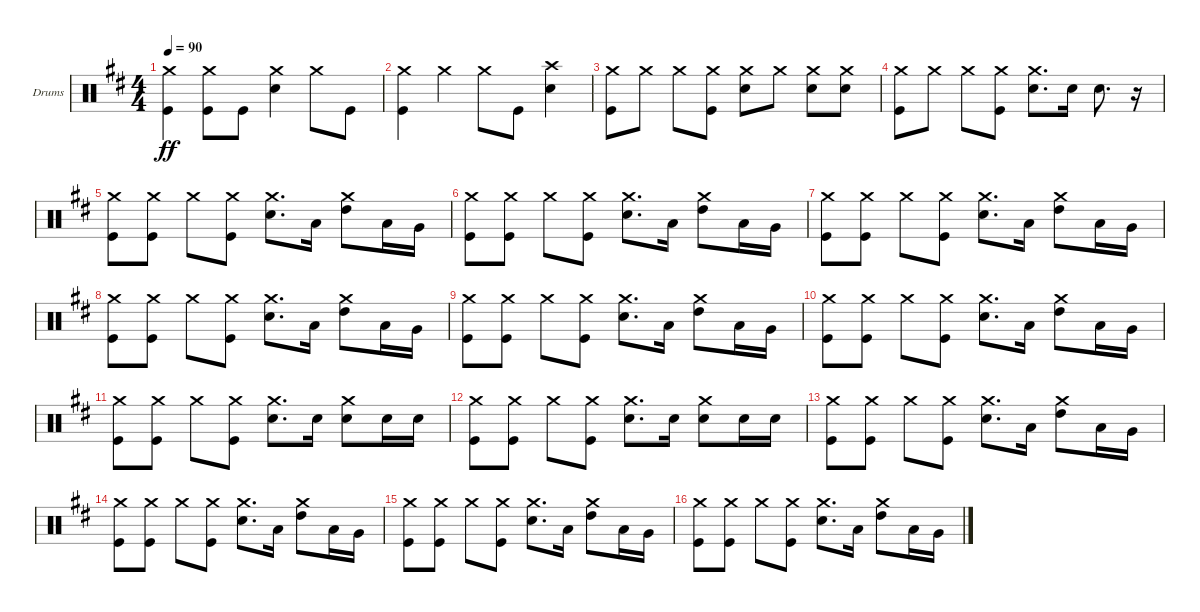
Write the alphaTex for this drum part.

\defaultSystemsLayout 4
\bracketExtendMode groupsimilarinstruments
\firstSystemTrackNameOrientation horizontal
\otherSystemsTrackNameOrientation horizontal
\track ("Drumkit" "Drums") {instrument percussion}
\staff {score}
\articulation defaults
\ts (4 4)
\tempo 90
\clef neutral
\scale
0.333333
\ks d
("Kick (hit)" "Crash medium (hit)").4{dy ff} ("Crash medium (hit)" "Kick (hit)").8 "Kick (hit)".8 ("Snare (hit) 2" "Crash medium (hit)").4 "Crash medium (hit)".8 "Kick (hit)".8 |
\scale
0.333333 ("Kick (hit)" "Crash medium (hit)").4 "Crash medium (hit)".4 "Crash medium (hit)".8 "Kick (hit)".8 ("Crash high (hit)" "Snare (hit) 2").4 |
\scale
0.333333 ("Kick (hit)" "Crash medium (hit)").8 "Crash medium (hit)".8 "Crash medium (hit)".8 ("Crash medium (hit)" "Kick (hit)").8 ("Crash medium (hit)" "Snare (hit) 2").8 "Crash medium (hit)".8 ("Crash medium (hit)" "Snare (hit) 2").8 ("Crash medium (hit)" "Snare (hit) 2").8 |
\scale
0.333333 ("Kick (hit)" "Crash medium (hit)").8 "Crash medium (hit)".8 "Crash medium (hit)".8 ("Kick (hit)" "Crash medium (hit)").8 ("Snare (hit) 2" "Crash medium (hit)").8{d} "Snare (hit) 2".16 "Snare (hit) 2".8{d} r.16 |
\scale
0.333333 ("Kick (hit)" "Crash medium (hit)").8 ("Crash medium (hit)" "Kick (hit)").8 "Crash medium (hit)".8 ("Crash medium (hit)" "Kick (hit)").8 ("Crash medium (hit)" "Snare (hit) 2").8{d} "Low Tom (hit)".16 ("High Tom (hit)" "Crash medium (hit)").8 "Low Tom (hit)".16 "Very Low Tom (hit)".16 |
\scale
0.333333 ("Kick (hit)" "Crash medium (hit)").8 ("Crash medium (hit)" "Kick (hit)").8 "Crash medium (hit)".8 ("Crash medium (hit)" "Kick (hit)").8 ("Crash medium (hit)" "Snare (hit) 2").8{d} "Low Tom (hit)".16 ("High Tom (hit)" "Crash medium (hit)").8 "Low Tom (hit)".16 "Very Low Tom (hit)".16 |
\scale
0.333333 ("Kick (hit)" "Crash medium (hit)").8 ("Crash medium (hit)" "Kick (hit)").8 "Crash medium (hit)".8 ("Crash medium (hit)" "Kick (hit)").8 ("Crash medium (hit)" "Snare (hit) 2").8{d} "Low Tom (hit)".16 ("High Tom (hit)" "Crash medium (hit)").8 "Low Tom (hit)".16 "Very Low Tom (hit)".16 |
\scale
0.333333 ("Kick (hit)" "Crash medium (hit)").8 ("Crash medium (hit)" "Kick (hit)").8 "Crash medium (hit)".8 ("Crash medium (hit)" "Kick (hit)").8 ("Crash medium (hit)" "Snare (hit) 2").8{d} "Low Tom (hit)".16 ("High Tom (hit)" "Crash medium (hit)").8 "Low Tom (hit)".16 "Very Low Tom (hit)".16 |
\scale
0.333333 ("Kick (hit)" "Crash medium (hit)").8 ("Crash medium (hit)" "Kick (hit)").8 "Crash medium (hit)".8 ("Crash medium (hit)" "Kick (hit)").8 ("Crash medium (hit)" "Snare (hit) 2").8{d} "Low Tom (hit)".16 ("High Tom (hit)" "Crash medium (hit)").8 "Low Tom (hit)".16 "Very Low Tom (hit)".16 |
\scale
0.333333 ("Kick (hit)" "Crash medium (hit)").8 ("Crash medium (hit)" "Kick (hit)").8 "Crash medium (hit)".8 ("Crash medium (hit)" "Kick (hit)").8 ("Crash medium (hit)" "Snare (hit) 2").8{d} "Low Tom (hit)".16 ("High Tom (hit)" "Crash medium (hit)").8 "Low Tom (hit)".16 "Very Low Tom (hit)".16 |
\scale
0.333333 ("Kick (hit)" "Crash medium (hit)").8 ("Crash medium (hit)" "Kick (hit)").8 "Crash medium (hit)".8 ("Crash medium (hit)" "Kick (hit)").8 ("Crash medium (hit)" "Snare (hit) 2").8{d} "Snare (hit) 2".16 ("Crash medium (hit)" "Snare (hit) 2").8 "Snare (hit) 2".16 "Snare (hit) 2".16 |
\scale
0.333333 ("Kick (hit)" "Crash medium (hit)").8 ("Crash medium (hit)" "Kick (hit)").8 "Crash medium (hit)".8 ("Crash medium (hit)" "Kick (hit)").8 ("Crash medium (hit)" "Snare (hit) 2").8{d} "Snare (hit) 2".16 ("Crash medium (hit)" "Snare (hit) 2").8 "Snare (hit) 2".16 "Snare (hit) 2".16 |
\scale
0.333333 ("Kick (hit)" "Crash medium (hit)").8 ("Crash medium (hit)" "Kick (hit)").8 "Crash medium (hit)".8 ("Crash medium (hit)" "Kick (hit)").8 ("Crash medium (hit)" "Snare (hit) 2").8{d} "Low Tom (hit)".16 ("High Tom (hit)" "Crash medium (hit)").8 "Low Tom (hit)".16 "Very Low Tom (hit)".16 |
\scale
0.333333 ("Kick (hit)" "Crash medium (hit)").8 ("Crash medium (hit)" "Kick (hit)").8 "Crash medium (hit)".8 ("Crash medium (hit)" "Kick (hit)").8 ("Crash medium (hit)" "Snare (hit) 2").8{d} "Low Tom (hit)".16 ("High Tom (hit)" "Crash medium (hit)").8 "Low Tom (hit)".16 "Very Low Tom (hit)".16 |
\scale
0.333333 ("Kick (hit)" "Crash medium (hit)").8 ("Crash medium (hit)" "Kick (hit)").8 "Crash medium (hit)".8 ("Crash medium (hit)" "Kick (hit)").8 ("Crash medium (hit)" "Snare (hit) 2").8{d} "Low Tom (hit)".16 ("High Tom (hit)" "Crash medium (hit)").8 "Low Tom (hit)".16 "Very Low Tom (hit)".16 |
\scale
0.333333 ("Kick (hit)" "Crash medium (hit)").8 ("Crash medium (hit)" "Kick (hit)").8 "Crash medium (hit)".8 ("Crash medium (hit)" "Kick (hit)").8 ("Crash medium (hit)" "Snare (hit) 2").8{d} "Low Tom (hit)".16 ("High Tom (hit)" "Crash medium (hit)").8 "Low Tom (hit)".16 "Very Low Tom (hit)".16
